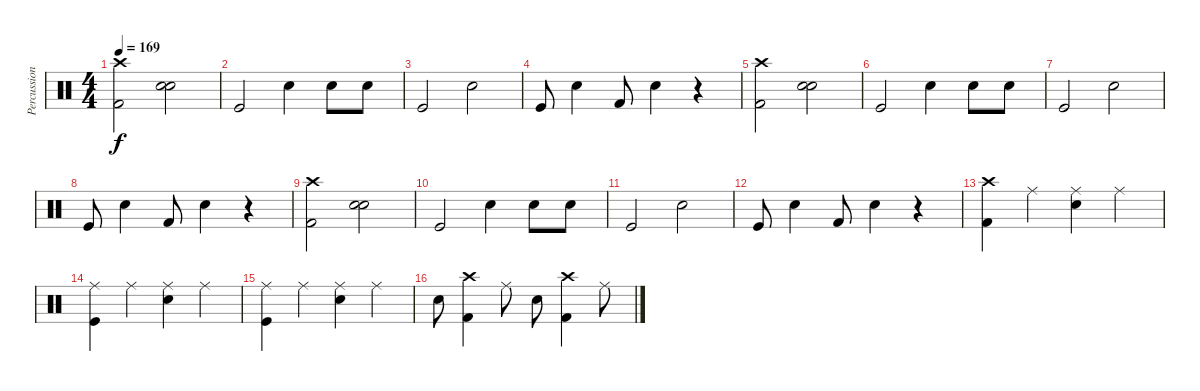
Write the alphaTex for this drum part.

\track ("Percussion" "Percussion") {instrument percussion}
\staff {score}
\articulation defaults
\ts (4 4)
\tempo 169
\clef neutral
\ks c
("Crash high (hit)" "Kick (hit) 2").2{dy f} ("Snare (hit) 2" "Snare (hit) 2").2 |
"Kick (hit)".2 "Snare (hit) 2".4 "Snare (hit) 2".8 "Snare (hit) 2".8 |
"Kick (hit)".2 "Snare (hit) 2".2 |
"Kick (hit)".8 "Snare (hit) 2".4 "Kick (hit) 2".8 "Snare (hit) 2".4 r.4 |
("Crash high (hit)" "Kick (hit) 2").2 ("Snare (hit) 2" "Snare (hit) 2").2 |
"Kick (hit)".2 "Snare (hit) 2".4 "Snare (hit) 2".8 "Snare (hit) 2".8 |
"Kick (hit)".2 "Snare (hit) 2".2 |
"Kick (hit)".8 "Snare (hit) 2".4 "Kick (hit) 2".8 "Snare (hit) 2".4 r.4 |
("Crash high (hit)" "Kick (hit) 2").2 ("Snare (hit) 2" "Snare (hit) 2").2 |
"Kick (hit)".2 "Snare (hit) 2".4 "Snare (hit) 2".8 "Snare (hit) 2".8 |
"Kick (hit)".2 "Snare (hit) 2".2 |
"Kick (hit)".8 "Snare (hit) 2".4 "Kick (hit) 2".8 "Snare (hit) 2".4 r.4 |
("Crash high (hit)" "Kick (hit) 2").4 "Ride (middle)".4 ("Ride (middle)" "Snare (hit) 2").4 "Ride (middle)".4 |
("Ride (middle)" "Kick (hit)").4 "Ride (middle)".4 ("Snare (hit) 2" "Ride (middle)").4 "Ride (middle)".4 |
("Ride (middle)" "Kick (hit)").4 "Ride (middle)".4 ("Snare (hit) 2" "Ride (middle)").4 "Ride (middle)".4 |
"Snare (hit) 2".8 ("Kick (hit) 2" "Crash high (hit)").4 "Ride (middle)".8 "Snare (hit) 2".8 ("Kick (hit) 2" "Crash high (hit)").4 "Ride (middle)".8
